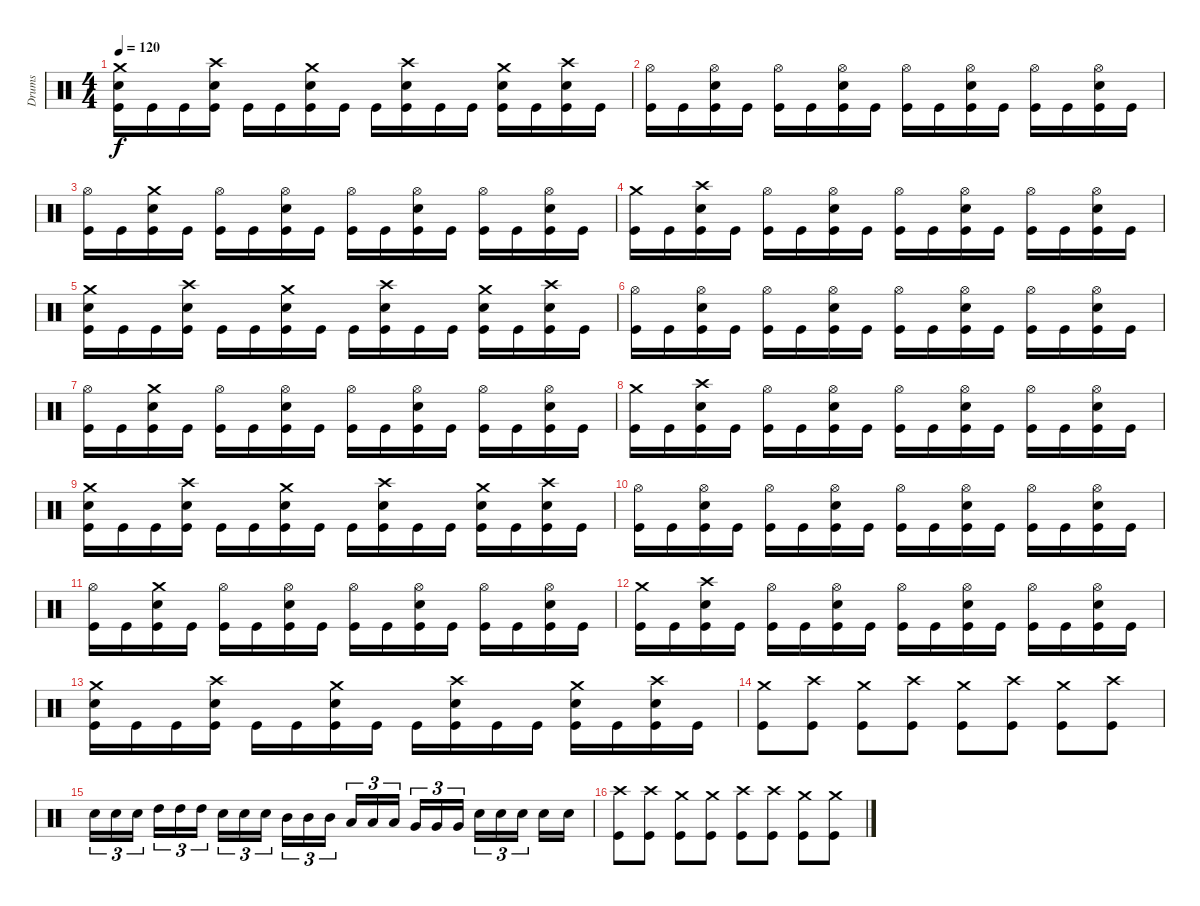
\track ("Drums" "Drums") {instrument percussion}
\staff {score}
\articulation defaults
\ts (4 4)
\tempo 120
\clef neutral
\ks c
("Crash medium (hit)" "Snare (hit) 2" "Kick (hit)").16{dy f} "Kick (hit)".16 "Kick (hit)".16 ("Crash high (hit)" "Snare (hit) 2" "Kick (hit)").16 "Kick (hit)".16 "Kick (hit)".16 ("Crash medium (hit)" "Snare (hit) 2" "Kick (hit)").16 "Kick (hit)".16 "Kick (hit)".16 ("Crash high (hit)" "Snare (hit) 2" "Kick (hit)").16 "Kick (hit)".16 "Kick (hit)".16 ("Crash medium (hit)" "Snare (hit) 2" "Kick (hit)").16 "Kick (hit)".16 ("Crash high (hit)" "Snare (hit) 2" "Kick (hit)").16 "Kick (hit)".16 |
("Hi-Hat (open)" "Kick (hit)").16 "Kick (hit)".16 ("Hi-Hat (open)" "Snare (hit) 2" "Kick (hit)").16 "Kick (hit)".16 ("Hi-Hat (open)" "Kick (hit)").16 "Kick (hit)".16 ("Hi-Hat (open)" "Snare (hit) 2" "Kick (hit)").16 "Kick (hit)".16 ("Hi-Hat (open)" "Kick (hit)").16 "Kick (hit)".16 ("Hi-Hat (open)" "Snare (hit) 2" "Kick (hit)").16 "Kick (hit)".16 ("Hi-Hat (open)" "Kick (hit)").16 "Kick (hit)".16 ("Hi-Hat (open)" "Snare (hit) 2" "Kick (hit)").16 "Kick (hit)".16 |
("Hi-Hat (open)" "Kick (hit)").16 "Kick (hit)".16 ("Crash medium (hit)" "Snare (hit) 2" "Kick (hit)").16 "Kick (hit)".16 ("Hi-Hat (open)" "Kick (hit)").16 "Kick (hit)".16 ("Hi-Hat (open)" "Snare (hit) 2" "Kick (hit)").16 "Kick (hit)".16 ("Hi-Hat (open)" "Kick (hit)").16 "Kick (hit)".16 ("Hi-Hat (open)" "Snare (hit) 2" "Kick (hit)").16 "Kick (hit)".16 ("Hi-Hat (open)" "Kick (hit)").16 "Kick (hit)".16 ("Hi-Hat (open)" "Snare (hit) 2" "Kick (hit)").16 "Kick (hit)".16 |
("Crash medium (hit)" "Kick (hit)").16 "Kick (hit)".16 ("Crash high (hit)" "Snare (hit) 2" "Kick (hit)").16 "Kick (hit)".16 ("Hi-Hat (open)" "Kick (hit)").16 "Kick (hit)".16 ("Hi-Hat (open)" "Snare (hit) 2" "Kick (hit)").16 "Kick (hit)".16 ("Hi-Hat (open)" "Kick (hit)").16 "Kick (hit)".16 ("Hi-Hat (open)" "Snare (hit) 2" "Kick (hit)").16 "Kick (hit)".16 ("Hi-Hat (open)" "Kick (hit)").16 "Kick (hit)".16 ("Hi-Hat (open)" "Snare (hit) 2" "Kick (hit)").16 "Kick (hit)".16 |
("Crash medium (hit)" "Snare (hit) 2" "Kick (hit)").16 "Kick (hit)".16 "Kick (hit)".16 ("Crash high (hit)" "Snare (hit) 2" "Kick (hit)").16 "Kick (hit)".16 "Kick (hit)".16 ("Crash medium (hit)" "Snare (hit) 2" "Kick (hit)").16 "Kick (hit)".16 "Kick (hit)".16 ("Crash high (hit)" "Snare (hit) 2" "Kick (hit)").16 "Kick (hit)".16 "Kick (hit)".16 ("Crash medium (hit)" "Snare (hit) 2" "Kick (hit)").16 "Kick (hit)".16 ("Crash high (hit)" "Snare (hit) 2" "Kick (hit)").16 "Kick (hit)".16 |
("Hi-Hat (open)" "Kick (hit)").16 "Kick (hit)".16 ("Hi-Hat (open)" "Snare (hit) 2" "Kick (hit)").16 "Kick (hit)".16 ("Hi-Hat (open)" "Kick (hit)").16 "Kick (hit)".16 ("Hi-Hat (open)" "Snare (hit) 2" "Kick (hit)").16 "Kick (hit)".16 ("Hi-Hat (open)" "Kick (hit)").16 "Kick (hit)".16 ("Hi-Hat (open)" "Snare (hit) 2" "Kick (hit)").16 "Kick (hit)".16 ("Hi-Hat (open)" "Kick (hit)").16 "Kick (hit)".16 ("Hi-Hat (open)" "Snare (hit) 2" "Kick (hit)").16 "Kick (hit)".16 |
("Hi-Hat (open)" "Kick (hit)").16 "Kick (hit)".16 ("Crash medium (hit)" "Snare (hit) 2" "Kick (hit)").16 "Kick (hit)".16 ("Hi-Hat (open)" "Kick (hit)").16 "Kick (hit)".16 ("Hi-Hat (open)" "Snare (hit) 2" "Kick (hit)").16 "Kick (hit)".16 ("Hi-Hat (open)" "Kick (hit)").16 "Kick (hit)".16 ("Hi-Hat (open)" "Snare (hit) 2" "Kick (hit)").16 "Kick (hit)".16 ("Hi-Hat (open)" "Kick (hit)").16 "Kick (hit)".16 ("Hi-Hat (open)" "Snare (hit) 2" "Kick (hit)").16 "Kick (hit)".16 |
("Crash medium (hit)" "Kick (hit)").16 "Kick (hit)".16 ("Crash high (hit)" "Snare (hit) 2" "Kick (hit)").16 "Kick (hit)".16 ("Hi-Hat (open)" "Kick (hit)").16 "Kick (hit)".16 ("Hi-Hat (open)" "Snare (hit) 2" "Kick (hit)").16 "Kick (hit)".16 ("Hi-Hat (open)" "Kick (hit)").16 "Kick (hit)".16 ("Hi-Hat (open)" "Snare (hit) 2" "Kick (hit)").16 "Kick (hit)".16 ("Hi-Hat (open)" "Kick (hit)").16 "Kick (hit)".16 ("Hi-Hat (open)" "Snare (hit) 2" "Kick (hit)").16 "Kick (hit)".16 |
("Crash medium (hit)" "Snare (hit) 2" "Kick (hit)").16 "Kick (hit)".16 "Kick (hit)".16 ("Crash high (hit)" "Snare (hit) 2" "Kick (hit)").16 "Kick (hit)".16 "Kick (hit)".16 ("Crash medium (hit)" "Snare (hit) 2" "Kick (hit)").16 "Kick (hit)".16 "Kick (hit)".16 ("Crash high (hit)" "Snare (hit) 2" "Kick (hit)").16 "Kick (hit)".16 "Kick (hit)".16 ("Crash medium (hit)" "Snare (hit) 2" "Kick (hit)").16 "Kick (hit)".16 ("Crash high (hit)" "Snare (hit) 2" "Kick (hit)").16 "Kick (hit)".16 |
("Hi-Hat (open)" "Kick (hit)").16 "Kick (hit)".16 ("Hi-Hat (open)" "Snare (hit) 2" "Kick (hit)").16 "Kick (hit)".16 ("Hi-Hat (open)" "Kick (hit)").16 "Kick (hit)".16 ("Hi-Hat (open)" "Snare (hit) 2" "Kick (hit)").16 "Kick (hit)".16 ("Hi-Hat (open)" "Kick (hit)").16 "Kick (hit)".16 ("Hi-Hat (open)" "Snare (hit) 2" "Kick (hit)").16 "Kick (hit)".16 ("Hi-Hat (open)" "Kick (hit)").16 "Kick (hit)".16 ("Hi-Hat (open)" "Snare (hit) 2" "Kick (hit)").16 "Kick (hit)".16 |
("Hi-Hat (open)" "Kick (hit)").16 "Kick (hit)".16 ("Crash medium (hit)" "Snare (hit) 2" "Kick (hit)").16 "Kick (hit)".16 ("Hi-Hat (open)" "Kick (hit)").16 "Kick (hit)".16 ("Hi-Hat (open)" "Snare (hit) 2" "Kick (hit)").16 "Kick (hit)".16 ("Hi-Hat (open)" "Kick (hit)").16 "Kick (hit)".16 ("Hi-Hat (open)" "Snare (hit) 2" "Kick (hit)").16 "Kick (hit)".16 ("Hi-Hat (open)" "Kick (hit)").16 "Kick (hit)".16 ("Hi-Hat (open)" "Snare (hit) 2" "Kick (hit)").16 "Kick (hit)".16 |
("Crash medium (hit)" "Kick (hit)").16 "Kick (hit)".16 ("Crash high (hit)" "Snare (hit) 2" "Kick (hit)").16 "Kick (hit)".16 ("Hi-Hat (open)" "Kick (hit)").16 "Kick (hit)".16 ("Hi-Hat (open)" "Snare (hit) 2" "Kick (hit)").16 "Kick (hit)".16 ("Hi-Hat (open)" "Kick (hit)").16 "Kick (hit)".16 ("Hi-Hat (open)" "Snare (hit) 2" "Kick (hit)").16 "Kick (hit)".16 ("Hi-Hat (open)" "Kick (hit)").16 "Kick (hit)".16 ("Hi-Hat (open)" "Snare (hit) 2" "Kick (hit)").16 "Kick (hit)".16 |
("Crash medium (hit)" "Snare (hit) 2" "Kick (hit)").16 "Kick (hit)".16 "Kick (hit)".16 ("Crash high (hit)" "Snare (hit) 2" "Kick (hit)").16 "Kick (hit)".16 "Kick (hit)".16 ("Crash medium (hit)" "Snare (hit) 2" "Kick (hit)").16 "Kick (hit)".16 "Kick (hit)".16 ("Crash high (hit)" "Snare (hit) 2" "Kick (hit)").16 "Kick (hit)".16 "Kick (hit)".16 ("Crash medium (hit)" "Snare (hit) 2" "Kick (hit)").16 "Kick (hit)".16 ("Crash high (hit)" "Snare (hit) 2" "Kick (hit)").16 "Kick (hit)".16 |
("Crash medium (hit)" "Kick (hit)").8 ("Crash high (hit)" "Kick (hit)").8 ("Crash medium (hit)" "Kick (hit)").8 ("Crash high (hit)" "Kick (hit)").8 ("Crash medium (hit)" "Kick (hit)").8 ("Crash high (hit)" "Kick (hit)").8 ("Crash medium (hit)" "Kick (hit)").8 ("Crash high (hit)" "Kick (hit)").8 |
"Snare (hit) 2".16{tu (3 2)} "Snare (hit) 2".16{tu (3 2)} "Snare (hit) 2".16{tu (3 2)} "High Tom (hit)".16{tu (3 2)} "High Tom (hit)".16{tu (3 2)} "High Tom (hit)".16{tu (3 2)} "Snare (hit) 2".16{tu (3 2)} "Snare (hit) 2".16{tu (3 2)} "Snare (hit) 2".16{tu (3 2)} "Mid Tom (hit)".16{tu (3 2)} "Mid Tom (hit)".16{tu (3 2)} "Mid Tom (hit)".16{tu (3 2)} "Low Tom (hit)".16{tu (3 2)} "Low Tom (hit)".16{tu (3 2)} "Low Tom (hit)".16{tu (3 2)} "Very Low Tom (hit)".16{tu (3 2)} "Very Low Tom (hit)".16{tu (3 2)} "Very Low Tom (hit)".16{tu (3 2)} "Snare (hit) 2".16{tu (3 2)} "Snare (hit) 2".16{tu (3 2)} "Snare (hit) 2".16{tu (3 2)} "Snare (hit) 2".16 "Snare (hit) 2".16 |
("Crash high (hit)" "Kick (hit)").8 ("Crash high (hit)" "Kick (hit)").8 ("Crash medium (hit)" "Kick (hit)").8 ("Crash medium (hit)" "Kick (hit)").8 ("Crash high (hit)" "Kick (hit)").8 ("Crash high (hit)" "Kick (hit)").8 ("Crash medium (hit)" "Kick (hit)").8 ("Crash medium (hit)" "Kick (hit)").8
